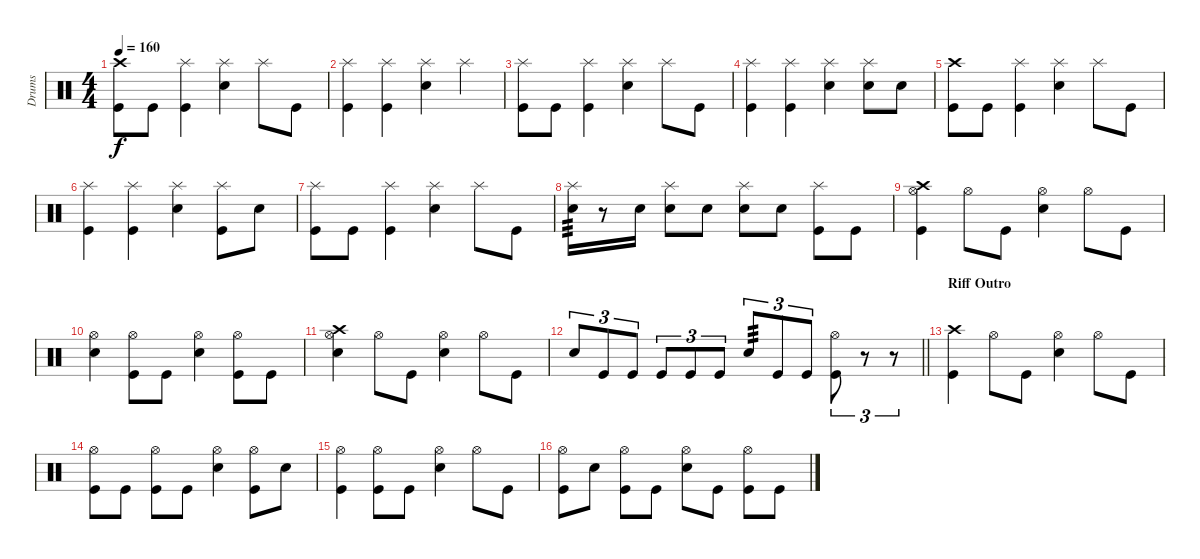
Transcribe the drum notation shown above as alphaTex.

\track ("Drums" "Drums") {instrument percussion}
\staff {score}
\articulation defaults
\ts (4 4)
\tempo 160
\clef neutral
\ks c
("Crash high (hit)" "Kick (hit)").8{dy f} "Kick (hit)".8 ("Splash (hit)" "Kick (hit)").4 ("Splash (hit)" "Snare (hit) 2").4 "Splash (hit)".8 "Kick (hit)".8 |
("Splash (hit)" "Kick (hit)").4 ("Splash (hit)" "Kick (hit)").4 ("Splash (hit)" "Snare (hit) 2").4 "Splash (hit)".4 |
("Splash (hit)" "Kick (hit)").8 "Kick (hit)".8 ("Splash (hit)" "Kick (hit)").4 ("Splash (hit)" "Snare (hit) 2").4 "Splash (hit)".8 "Kick (hit)".8 |
("Splash (hit)" "Kick (hit)").4 ("Splash (hit)" "Kick (hit)").4 ("Splash (hit)" "Snare (hit) 2").4 ("Splash (hit)" "Snare (hit) 2").8 "Snare (hit) 2".8 |
("Crash high (hit)" "Kick (hit)").8 "Kick (hit)".8 ("Splash (hit)" "Kick (hit)").4 ("Splash (hit)" "Snare (hit) 2").4 "Splash (hit)".8 "Kick (hit)".8 |
("Splash (hit)" "Kick (hit)").4 ("Splash (hit)" "Kick (hit)").4 ("Splash (hit)" "Snare (hit) 2").4 ("Splash (hit)" "Kick (hit)").8 "Snare (hit) 2".8 |
("Splash (hit)" "Kick (hit)").8 "Kick (hit)".8 ("Splash (hit)" "Kick (hit)").4 ("Splash (hit)" "Snare (hit) 2").4 "Splash (hit)".8 "Kick (hit)".8 |
("Splash (hit)" "Snare (hit) 2").16{tp 3} r.8 "Snare (hit) 2".16 ("Splash (hit)" "Snare (hit) 2").8 "Snare (hit) 2".8 ("Splash (hit)" "Snare (hit) 2").8 "Snare (hit) 2".8 ("Splash (hit)" "Kick (hit)").8 "Kick (hit)".8 |
("Hi-Hat (open)" "Crash high (hit)" "Kick (hit)").4 "Hi-Hat (open)".8 "Kick (hit)".8 ("Hi-Hat (open)" "Snare (hit) 2").4 "Hi-Hat (open)".8 "Kick (hit)".8 |
("Hi-Hat (open)" "Snare (hit) 2").4 ("Hi-Hat (open)" "Kick (hit)").8 "Kick (hit)".8 ("Hi-Hat (open)" "Snare (hit) 2").4 ("Hi-Hat (open)" "Kick (hit)").8 "Kick (hit)".8 |
("Hi-Hat (open)" "Crash high (hit)" "Snare (hit) 2").4 "Hi-Hat (open)".8 "Kick (hit)".8 ("Hi-Hat (open)" "Snare (hit) 2").4 "Hi-Hat (open)".8 "Kick (hit)".8 |
\barLineRight lightlight "Snare (hit) 2".8{tu (3 2)} "Kick (hit)".8{tu (3 2)} "Kick (hit)".8{tu (3 2)} "Kick (hit)".8{tu (3 2)} "Kick (hit)".8{tu (3 2)} "Kick (hit)".8{tu (3 2)} "Snare (hit) 2".8{tu (3 2) tp 3} "Kick (hit)".8{tu (3 2)} "Kick (hit)".8{tu (3 2)}
("Hi-Hat (open)" "Kick (hit)").8{tu (3 2)} r.8{tu (3 2)} r.8{tu (3 2)} |
\section ("" "Riff Outro")
("Crash high (hit)" "Kick (hit)").4 "Hi-Hat (open)".8 "Kick (hit)".8 ("Hi-Hat (open)" "Snare (hit) 2").4 "Hi-Hat (open)".8 "Kick (hit)".8 |
("Hi-Hat (open)" "Kick (hit)").8 "Kick (hit)".8 ("Hi-Hat (open)" "Kick (hit)").8 "Kick (hit)".8 ("Hi-Hat (open)" "Snare (hit) 2").4 ("Hi-Hat (open)" "Kick (hit)").8 "Snare (hit) 2".8 |
("Hi-Hat (open)" "Kick (hit)").4 ("Hi-Hat (open)" "Kick (hit)").8 "Kick (hit)".8 ("Hi-Hat (open)" "Snare (hit) 2").4 "Hi-Hat (open)".8 "Kick (hit)".8 |
("Hi-Hat (open)" "Kick (hit)").8 "Snare (hit) 2".8 ("Hi-Hat (open)" "Kick (hit)").8 "Kick (hit)".8 ("Hi-Hat (open)" "Snare (hit) 2").8 "Kick (hit)".8 ("Hi-Hat (open)" "Kick (hit)").8 "Kick (hit)".8
